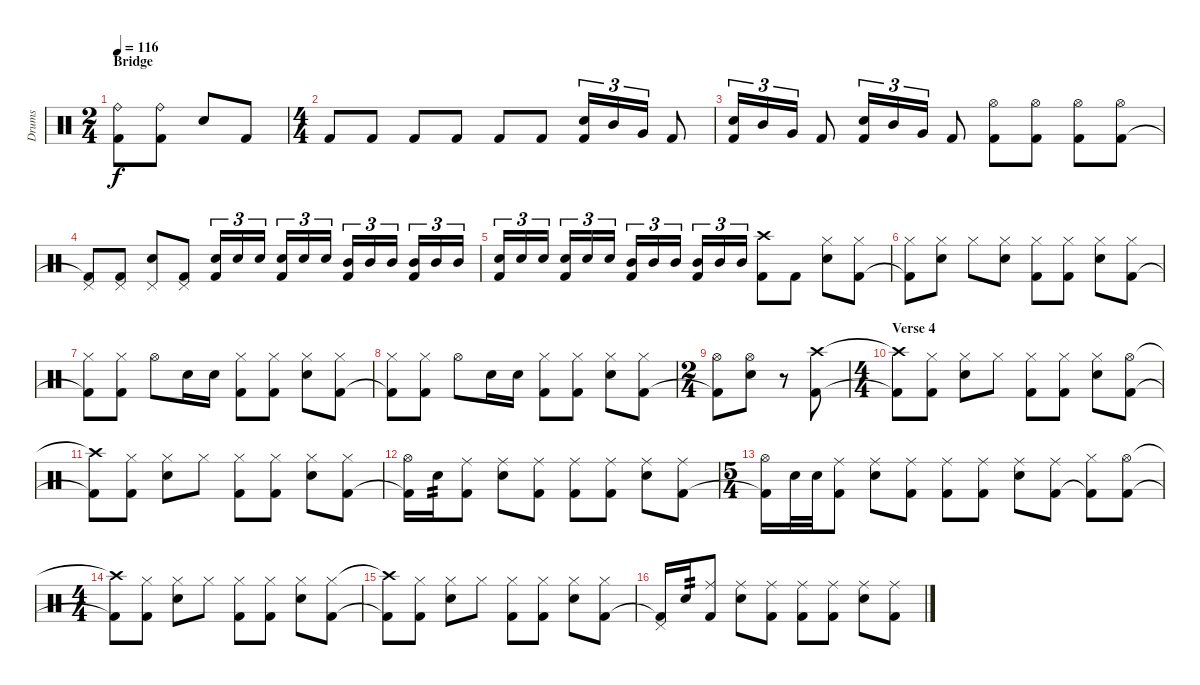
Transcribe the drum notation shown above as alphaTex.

\track ("Drums" "Drums") {instrument percussion}
\staff {score}
\articulation defaults
\ts (2 4)
\section ("" "Bridge")
\tempo 116
\clef neutral
\ks c
("Ride (bell)" "Kick (hit) 2").8{dy f} ("Ride (bell)" "Kick (hit) 2").8 "Snare (hit) 2".8 "Kick (hit) 2".8 |
\ts (4 4)
"Kick (hit) 2".8 "Kick (hit) 2".8 "Kick (hit) 2".8 "Kick (hit) 2".8 "Kick (hit) 2".8 "Kick (hit) 2".8 ("Snare (hit) 2" "Kick (hit) 2").16{tu (3 2)} "Mid Tom (hit)".16{tu (3 2)} "Very Low Tom (hit)".16{tu (3 2)} "Kick (hit) 2".8 |
("Snare (hit) 2" "Kick (hit) 2").16{tu (3 2)} "Mid Tom (hit)".16{tu (3 2)} "Very Low Tom (hit)".16{tu (3 2)} "Kick (hit) 2".8 ("Snare (hit) 2" "Kick (hit) 2").16{tu (3 2)} "Mid Tom (hit)".16{tu (3 2)} "Very Low Tom (hit)".16{tu (3 2)} "Kick (hit) 2".8 ("Hi-Hat (open)" "Kick (hit) 2").8 ("Hi-Hat (open)" "Kick (hit) 2").8 ("Hi-Hat (open)" "Kick (hit) 2").8 ("Hi-Hat (open)" "Kick (hit) 2").8 |
("Pedal Hi-Hat (hit)" "Kick (hit) 2"{t}).8 ("Pedal Hi-Hat (hit)" "Kick (hit) 2").8 ("Pedal Hi-Hat (hit)" "Snare (hit) 2").8 ("Pedal Hi-Hat (hit)" "Kick (hit) 2").8 ("Snare (hit) 2" "Kick (hit) 2").16{tu (3 2)} "Snare (hit) 2".16{tu (3 2)} "Snare (hit) 2".16{tu (3 2)} ("Snare (hit) 2" "Kick (hit) 2").16{tu (3 2)} "Snare (hit) 2".16{tu (3 2)} "Snare (hit) 2".16{tu (3 2)} ("Mid Tom (hit)" "Kick (hit) 2").16{tu (3 2)} "Mid Tom (hit)".16{tu (3 2)} "Mid Tom (hit)".16{tu (3 2)} ("Mid Tom (hit)" "Kick (hit) 2").16{tu (3 2)} "Mid Tom (hit)".16{tu (3 2)} "Mid Tom (hit)".16{tu (3 2)} |
("Snare (hit) 2" "Kick (hit) 2").16{tu (3 2)} "Snare (hit) 2".16{tu (3 2)} "Snare (hit) 2".16{tu (3 2)} ("Snare (hit) 2" "Kick (hit) 2").16{tu (3 2)} "Snare (hit) 2".16{tu (3 2)} "Snare (hit) 2".16{tu (3 2)} ("Mid Tom (hit)" "Kick (hit) 2").16{tu (3 2)} "Mid Tom (hit)".16{tu (3 2)} "Mid Tom (hit)".16{tu (3 2)} ("Mid Tom (hit)" "Kick (hit) 2").16{tu (3 2)} "Mid Tom (hit)".16{tu (3 2)} "Mid Tom (hit)".16{tu (3 2)} ("Crash high (hit)" "Kick (hit) 2").8 "Kick (hit) 2".8 ("Hi-Hat (closed)" "Snare (hit) 2").8 ("Hi-Hat (closed)" "Kick (hit) 2").8 |
("Hi-Hat (closed)" "Kick (hit) 2"{t}).8 ("Hi-Hat (closed)" "Snare (hit) 2").8 "Hi-Hat (closed)".8 ("Hi-Hat (closed)" "Snare (hit) 2").8 ("Hi-Hat (closed)" "Kick (hit) 2").8 ("Hi-Hat (closed)" "Kick (hit) 2").8 ("Hi-Hat (closed)" "Snare (hit) 2").8 ("Hi-Hat (closed)" "Kick (hit) 2").8 |
("Hi-Hat (closed)" "Kick (hit) 2"{t}).8 ("Hi-Hat (closed)" "Kick (hit) 2").8 "Hi-Hat (open)".8 "Snare (hit) 2".16 "Snare (hit) 2".16 ("Hi-Hat (closed)" "Kick (hit) 2").8 ("Hi-Hat (closed)" "Kick (hit) 2").8 ("Hi-Hat (closed)" "Snare (hit) 2").8 ("Hi-Hat (closed)" "Kick (hit) 2").8 |
("Hi-Hat (closed)" "Kick (hit) 2"{t}).8 ("Hi-Hat (closed)" "Kick (hit) 2").8 "Hi-Hat (open)".8 "Snare (hit) 2".16 "Snare (hit) 2".16 ("Hi-Hat (closed)" "Kick (hit) 2").8 ("Hi-Hat (closed)" "Kick (hit) 2").8 ("Hi-Hat (closed)" "Snare (hit) 2").8 ("Hi-Hat (closed)" "Kick (hit) 2").8 |
\ts (2 4)
("Hi-Hat (open)" "Kick (hit) 2"{t}).8 ("Hi-Hat (open)" "Snare (hit) 2").8 r.8 ("Crash high (hit)" "Kick (hit) 2").8 |
\ts (4 4)
\section ("" "Verse 4")
("Crash high (hit)"{t} "Kick (hit) 2"{t}).8 ("Hi-Hat (closed)" "Kick (hit) 2").8 ("Hi-Hat (closed)" "Snare (hit) 2").8 "Hi-Hat (closed)".8 ("Hi-Hat (closed)" "Kick (hit) 2").8 ("Hi-Hat (closed)" "Kick (hit) 2").8 ("Hi-Hat (closed)" "Snare (hit) 2").8 ("Hi-Hat (open)" "Kick (hit) 2").8 |
("Crash high (hit)"{t} "Kick (hit) 2"{t}).8 ("Hi-Hat (closed)" "Kick (hit) 2").8 ("Hi-Hat (closed)" "Snare (hit) 2").8 "Hi-Hat (closed)".8 ("Hi-Hat (closed)" "Kick (hit) 2").8 ("Hi-Hat (closed)" "Kick (hit) 2").8 ("Hi-Hat (closed)" "Snare (hit) 2").8 ("Hi-Hat (closed)" "Kick (hit) 2").8 |
("Hi-Hat (open)" "Kick (hit) 2"{t}).16 "Snare (hit) 2".16{tp 2} ("Ride (middle)" "Kick (hit) 2").8 ("Ride (middle)" "Snare (hit) 2").8 ("Ride (middle)" "Kick (hit) 2").8 ("Ride (middle)" "Kick (hit) 2").8 ("Ride (middle)" "Kick (hit) 2").8 ("Ride (middle)" "Snare (hit) 2").8 ("Ride (middle)" "Kick (hit) 2").8 |
\ts (5 4)
("Hi-Hat (open)" "Kick (hit) 2"{t}).16 "Snare (hit) 2".32 "Snare (hit) 2".32 ("Ride (middle)" "Kick (hit) 2").8 ("Ride (middle)" "Snare (hit) 2").8 ("Ride (middle)" "Kick (hit) 2").8 ("Ride (middle)" "Kick (hit) 2").8 ("Ride (middle)" "Kick (hit) 2").8 ("Ride (middle)" "Snare (hit) 2").8 ("Ride (middle)" "Kick (hit) 2").8 ("Hi-Hat (closed)" "Kick (hit) 2"{t}).8 ("Hi-Hat (open)" "Kick (hit) 2").8 |
\ts (4 4)
("Crash high (hit)"{t} "Kick (hit) 2"{t}).8 ("Hi-Hat (closed)" "Kick (hit) 2").8 ("Hi-Hat (closed)" "Snare (hit) 2").8 "Hi-Hat (closed)".8 ("Hi-Hat (closed)" "Kick (hit) 2").8 ("Hi-Hat (closed)" "Kick (hit) 2").8 ("Hi-Hat (closed)" "Snare (hit) 2").8 ("Hi-Hat (closed)" "Kick (hit) 2").8 |
("Crash high (hit)"{t} "Kick (hit) 2"{t}).8 ("Hi-Hat (closed)" "Kick (hit) 2").8 ("Hi-Hat (closed)" "Snare (hit) 2").8 "Hi-Hat (closed)".8 ("Hi-Hat (closed)" "Kick (hit) 2").8 ("Hi-Hat (closed)" "Kick (hit) 2").8 ("Hi-Hat (closed)" "Snare (hit) 2").8 ("Hi-Hat (closed)" "Kick (hit) 2").8 |
("Pedal Hi-Hat (hit)" "Kick (hit) 2"{t}).16 "Snare (hit) 2".16{tp 2} ("Ride (middle)" "Kick (hit) 2").8 ("Ride (middle)" "Snare (hit) 2").8 ("Ride (middle)" "Kick (hit) 2").8 ("Ride (middle)" "Kick (hit) 2").8 ("Ride (middle)" "Kick (hit) 2").8 ("Ride (middle)" "Snare (hit) 2").8 ("Ride (middle)" "Kick (hit) 2").8
